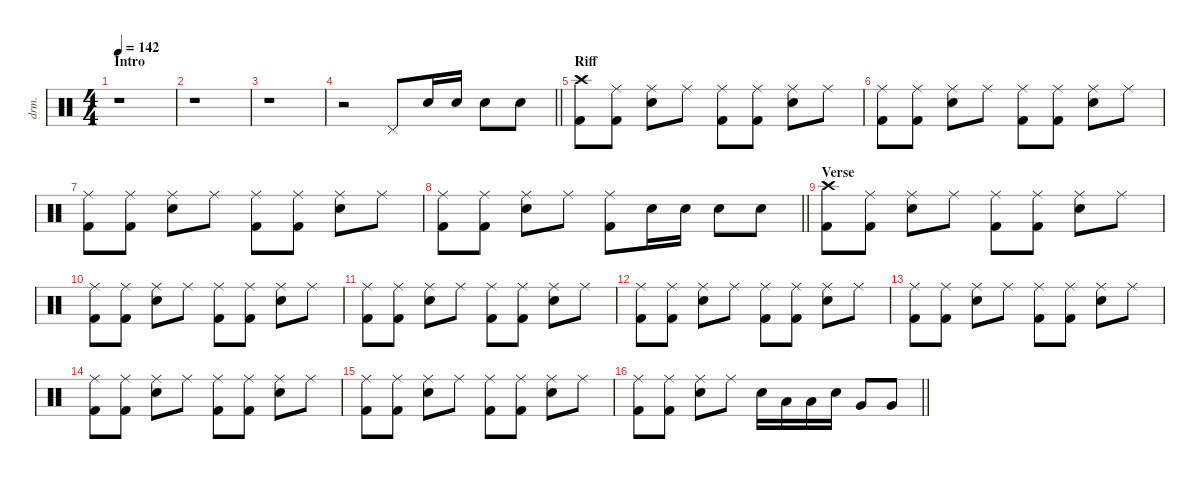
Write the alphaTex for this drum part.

\defaultSystemsLayout 4
\hideDynamics
\bracketExtendMode nobrackets
\otherSystemsTrackNameOrientation horizontal
\track ("Drums" "drm.") {defaultSystemsLayout 4 instrument percussion}
\staff {score}
\articulation defaults
\ts (4 4)
\beaming (8 2 2 2 2)
\section ("" "Intro")
\tempo 142
\clef neutral
\ks c
r.1{dy f beam Down} |
r.1{beam Down} |
r.1{beam Down} |
\barLineRight lightlight
r.2{beam Down} "Pedal Hi-Hat (hit)".8{beam Up} "Snare (hit) 2".16{beam Up} "Snare (hit) 2".16{beam Up} "Snare (hit) 2".8{beam Down} "Snare (hit) 2".8{beam Down} |
\section ("" "Riff")
("Crash high (hit)" "Kick (hit) 2").8{beam Down} ("Ride (middle)" "Kick (hit) 2").8{beam Down} ("Ride (middle)" "Snare (hit) 2").8{beam Down} "Ride (middle)".8{beam Down} ("Ride (middle)" "Kick (hit) 2").8{beam Down} ("Ride (middle)" "Kick (hit) 2").8{beam Down} ("Ride (middle)" "Snare (hit) 2").8{beam Down} "Ride (middle)".8{beam Down} |
("Ride (middle)" "Kick (hit) 2").8{beam Down} ("Ride (middle)" "Kick (hit) 2").8{beam Down} ("Ride (middle)" "Snare (hit) 2").8{beam Down} "Ride (middle)".8{beam Down} ("Ride (middle)" "Kick (hit) 2").8{beam Down} ("Ride (middle)" "Kick (hit) 2").8{beam Down} ("Ride (middle)" "Snare (hit) 2").8{beam Down} "Ride (middle)".8{beam Down} |
("Ride (middle)" "Kick (hit) 2").8{beam Down} ("Ride (middle)" "Kick (hit) 2").8{beam Down} ("Ride (middle)" "Snare (hit) 2").8{beam Down} "Ride (middle)".8{beam Down} ("Ride (middle)" "Kick (hit) 2").8{beam Down} ("Ride (middle)" "Kick (hit) 2").8{beam Down} ("Ride (middle)" "Snare (hit) 2").8{beam Down} "Ride (middle)".8{beam Down} |
\barLineRight lightlight
("Ride (middle)" "Kick (hit) 2").8{beam Down} ("Ride (middle)" "Kick (hit) 2").8{beam Down} ("Ride (middle)" "Snare (hit) 2").8{beam Down} "Ride (middle)".8{beam Down} ("Ride (middle)" "Kick (hit) 2").8{beam Down} "Snare (hit) 2".16{beam Down} "Snare (hit) 2".16{beam Down} "Snare (hit) 2".8{beam Down} "Snare (hit) 2".8{beam Down} |
\section ("" "Verse")
("Crash high (hit)" "Kick (hit) 2").8{beam Down} ("Ride (middle)" "Kick (hit) 2").8{beam Down} ("Ride (middle)" "Snare (hit) 2").8{beam Down} "Ride (middle)".8{beam Down} ("Ride (middle)" "Kick (hit) 2").8{beam Down} ("Ride (middle)" "Kick (hit) 2").8{beam Down} ("Ride (middle)" "Snare (hit) 2").8{beam Down} "Ride (middle)".8{beam Down} |
("Ride (middle)" "Kick (hit) 2").8{beam Down} ("Ride (middle)" "Kick (hit) 2").8{beam Down} ("Ride (middle)" "Snare (hit) 2").8{beam Down} "Ride (middle)".8{beam Down} ("Ride (middle)" "Kick (hit) 2").8{beam Down} ("Ride (middle)" "Kick (hit) 2").8{beam Down} ("Ride (middle)" "Snare (hit) 2").8{beam Down} "Ride (middle)".8{beam Down} |
("Ride (middle)" "Kick (hit) 2").8{beam Down} ("Ride (middle)" "Kick (hit) 2").8{beam Down} ("Ride (middle)" "Snare (hit) 2").8{beam Down} "Ride (middle)".8{beam Down} ("Ride (middle)" "Kick (hit) 2").8{beam Down} ("Ride (middle)" "Kick (hit) 2").8{beam Down} ("Ride (middle)" "Snare (hit) 2").8{beam Down} "Ride (middle)".8{beam Down} |
("Ride (middle)" "Kick (hit) 2").8{beam Down} ("Ride (middle)" "Kick (hit) 2").8{beam Down} ("Ride (middle)" "Snare (hit) 2").8{beam Down} "Ride (middle)".8{beam Down} ("Ride (middle)" "Kick (hit) 2").8{beam Down} ("Ride (middle)" "Kick (hit) 2").8{beam Down} ("Ride (middle)" "Snare (hit) 2").8{beam Down} "Ride (middle)".8{beam Down} |
("Ride (middle)" "Kick (hit) 2").8{beam Down} ("Ride (middle)" "Kick (hit) 2").8{beam Down} ("Ride (middle)" "Snare (hit) 2").8{beam Down} "Ride (middle)".8{beam Down} ("Ride (middle)" "Kick (hit) 2").8{beam Down} ("Ride (middle)" "Kick (hit) 2").8{beam Down} ("Ride (middle)" "Snare (hit) 2").8{beam Down} "Ride (middle)".8{beam Down} |
("Ride (middle)" "Kick (hit) 2").8{beam Down} ("Ride (middle)" "Kick (hit) 2").8{beam Down} ("Ride (middle)" "Snare (hit) 2").8{beam Down} "Ride (middle)".8{beam Down} ("Ride (middle)" "Kick (hit) 2").8{beam Down} ("Ride (middle)" "Kick (hit) 2").8{beam Down} ("Ride (middle)" "Snare (hit) 2").8{beam Down} "Ride (middle)".8{beam Down} |
("Ride (middle)" "Kick (hit) 2").8{beam Down} ("Ride (middle)" "Kick (hit) 2").8{beam Down} ("Ride (middle)" "Snare (hit) 2").8{beam Down} "Ride (middle)".8{beam Down} ("Ride (middle)" "Kick (hit) 2").8{beam Down} ("Ride (middle)" "Kick (hit) 2").8{beam Down} ("Ride (middle)" "Snare (hit) 2").8{beam Down} "Ride (middle)".8{beam Down} |
\barLineRight lightlight
("Ride (middle)" "Kick (hit) 2").8{beam Down} ("Ride (middle)" "Kick (hit) 2").8{beam Down} ("Ride (middle)" "Snare (hit) 2").8{beam Down} "Ride (middle)".8{beam Down} "Snare (hit) 2".16{beam Down} "Low Tom (hit)".16{beam Down} "Low Tom (hit)".16{beam Down} "Snare (hit) 2".16{beam Down} "Very Low Tom (hit)".8{beam Up} "Very Low Tom (hit)".8{beam Up}
